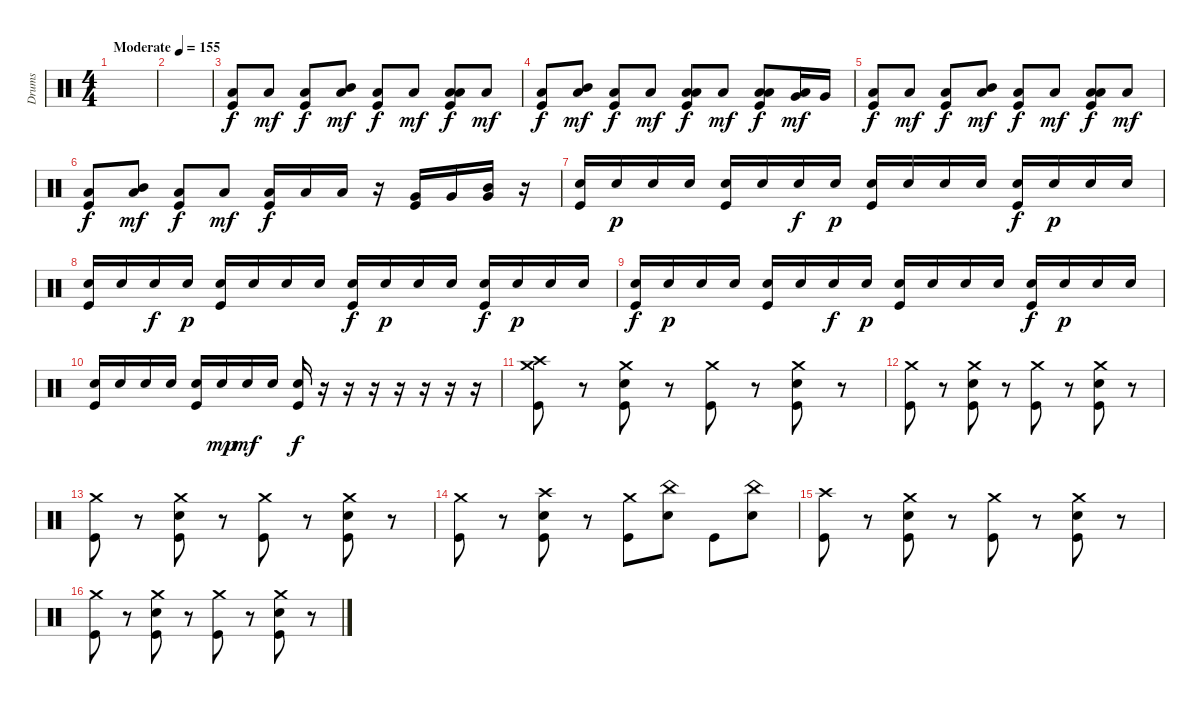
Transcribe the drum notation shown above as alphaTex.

\track ("Drums" "Drums") {instrument percussion}
\staff {score}
\articulation defaults
\ts (4 4)
\tempo (155 "Moderate")
\clef neutral
\ks c
|
|
("Low Floor Tom (hit)" "Kick (hit)").8 "Low Floor Tom (hit)".8{dy mf} ("Low Floor Tom (hit)" "Kick (hit)").8{dy f} ("Mid Tom (hit)" "Low Floor Tom (hit)").8{dy mf} ("Low Floor Tom (hit)" "Kick (hit)").8{dy f} "Low Floor Tom (hit)".8{dy mf} ("Low Tom (hit)" "Low Floor Tom (hit)" "Kick (hit)").8{dy f} "Low Floor Tom (hit)".8{dy mf} |
("Low Floor Tom (hit)" "Kick (hit)").8{dy f} ("Mid Tom (hit)" "Low Floor Tom (hit)").8{dy mf} ("Low Floor Tom (hit)" "Kick (hit)").8{dy f} "Low Floor Tom (hit)".8{dy mf} ("Low Tom (hit)" "Low Floor Tom (hit)" "Kick (hit)").8{dy f} "Low Floor Tom (hit)".8{dy mf} ("Low Tom (hit)" "Low Floor Tom (hit)" "Kick (hit)").8{dy f} ("Very Low Tom (hit)" "Low Floor Tom (hit)").16{dy mf} "Very Low Tom (hit)".16 |
("Low Floor Tom (hit)" "Kick (hit)").8{dy f} "Low Floor Tom (hit)".8{dy mf} ("Low Floor Tom (hit)" "Kick (hit)").8{dy f} ("Mid Tom (hit)" "Low Floor Tom (hit)").8{dy mf} ("Low Floor Tom (hit)" "Kick (hit)").8{dy f} "Low Floor Tom (hit)".8{dy mf} ("Low Tom (hit)" "Low Floor Tom (hit)" "Kick (hit)").8{dy f} "Low Floor Tom (hit)".8{dy mf} |
("Low Floor Tom (hit)" "Kick (hit)").8{dy f} ("Mid Tom (hit)" "Low Floor Tom (hit)").8{dy mf} ("Low Floor Tom (hit)" "Kick (hit)").8{dy f} "Low Floor Tom (hit)".8{dy mf} ("Low Tom (hit)" "Kick (hit)").16{dy f} "Low Tom (hit)".16 "Low Tom (hit)".16 r.16 ("Very Low Tom (hit)" "Kick (hit)").16 "Very Low Tom (hit)".16 ("Very Low Tom (hit)" "Mid Tom (hit)").16 r.16 |
("Electric Snare (hit)" "Kick (hit)").16 "Electric Snare (hit)".16{dy p} "Electric Snare (hit)".16 "Electric Snare (hit)".16 ("Electric Snare (hit)" "Kick (hit)").16 "Electric Snare (hit)".16 "Electric Snare (hit)".16{dy f} "Electric Snare (hit)".16{dy p} ("Electric Snare (hit)" "Kick (hit)").16 "Electric Snare (hit)".16 "Electric Snare (hit)".16 "Electric Snare (hit)".16 ("Electric Snare (hit)" "Kick (hit)").16{dy f} "Electric Snare (hit)".16{dy p} "Electric Snare (hit)".16 "Electric Snare (hit)".16 |
("Electric Snare (hit)" "Kick (hit)").16 "Electric Snare (hit)".16 "Electric Snare (hit)".16{dy f} "Electric Snare (hit)".16{dy p} ("Electric Snare (hit)" "Kick (hit)").16 "Electric Snare (hit)".16 "Electric Snare (hit)".16 "Electric Snare (hit)".16 ("Electric Snare (hit)" "Kick (hit)").16{dy f} "Electric Snare (hit)".16{dy p} "Electric Snare (hit)".16 "Electric Snare (hit)".16 ("Electric Snare (hit)" "Kick (hit)").16{dy f} "Electric Snare (hit)".16{dy p} "Electric Snare (hit)".16 "Electric Snare (hit)".16 |
("Electric Snare (hit)" "Kick (hit)").16{dy f} "Electric Snare (hit)".16{dy p} "Electric Snare (hit)".16 "Electric Snare (hit)".16 ("Electric Snare (hit)" "Kick (hit)").16 "Electric Snare (hit)".16 "Electric Snare (hit)".16{dy f} "Electric Snare (hit)".16{dy p} ("Electric Snare (hit)" "Kick (hit)").16 "Electric Snare (hit)".16 "Electric Snare (hit)".16 "Electric Snare (hit)".16 ("Electric Snare (hit)" "Kick (hit)").16{dy f} "Electric Snare (hit)".16{dy p} "Electric Snare (hit)".16 "Electric Snare (hit)".16 |
("Electric Snare (hit)" "Kick (hit)").16 "Electric Snare (hit)".16 "Electric Snare (hit)".16 "Electric Snare (hit)".16 ("Electric Snare (hit)" "Kick (hit)").16 "Electric Snare (hit)".16{dy mp} "Electric Snare (hit)".16{dy mf} "Electric Snare (hit)".16 ("Electric Snare (hit)" "Kick (hit)").16{dy f} r.16 r.16 r.16 r.16 r.16 r.16 r.16 |
("Crash high (hit)" "Crash medium (hit)" "Kick (hit)").8 r.8 ("Crash medium (hit)" "Electric Snare (hit)" "Kick (hit)").8 r.8 ("Crash medium (hit)" "Kick (hit)").8 r.8 ("Crash medium (hit)" "Electric Snare (hit)" "Kick (hit)").8 r.8 |
("Crash medium (hit)" "Kick (hit)").8 r.8 ("Crash medium (hit)" "Electric Snare (hit)" "Kick (hit)").8 r.8 ("Crash medium (hit)" "Kick (hit)").8 r.8 ("Crash medium (hit)" "Electric Snare (hit)" "Kick (hit)").8 r.8 |
("Crash medium (hit)" "Kick (hit)").8 r.8 ("Crash medium (hit)" "Electric Snare (hit)" "Kick (hit)").8 r.8 ("Crash medium (hit)" "Kick (hit)").8 r.8 ("Crash medium (hit)" "Electric Snare (hit)" "Kick (hit)").8 r.8 |
("Crash medium (hit)" "Kick (hit)").8 r.8 ("Crash high (hit)" "Electric Snare (hit)" "Kick (hit)").8 r.8 ("Crash medium (hit)" "Kick (hit)").8 ("China (hit)" "Electric Snare (hit)").8 "Kick (hit)".8 ("China (hit)" "Electric Snare (hit)").8 |
("Crash high (hit)" "Kick (hit)").8 r.8 ("Crash medium (hit)" "Electric Snare (hit)" "Kick (hit)").8 r.8 ("Crash medium (hit)" "Kick (hit)").8 r.8 ("Crash medium (hit)" "Electric Snare (hit)" "Kick (hit)").8 r.8 |
("Crash medium (hit)" "Kick (hit)").8 r.8 ("Crash medium (hit)" "Electric Snare (hit)" "Kick (hit)").8 r.8 ("Crash medium (hit)" "Kick (hit)").8 r.8 ("Crash medium (hit)" "Electric Snare (hit)" "Kick (hit)").8 r.8
